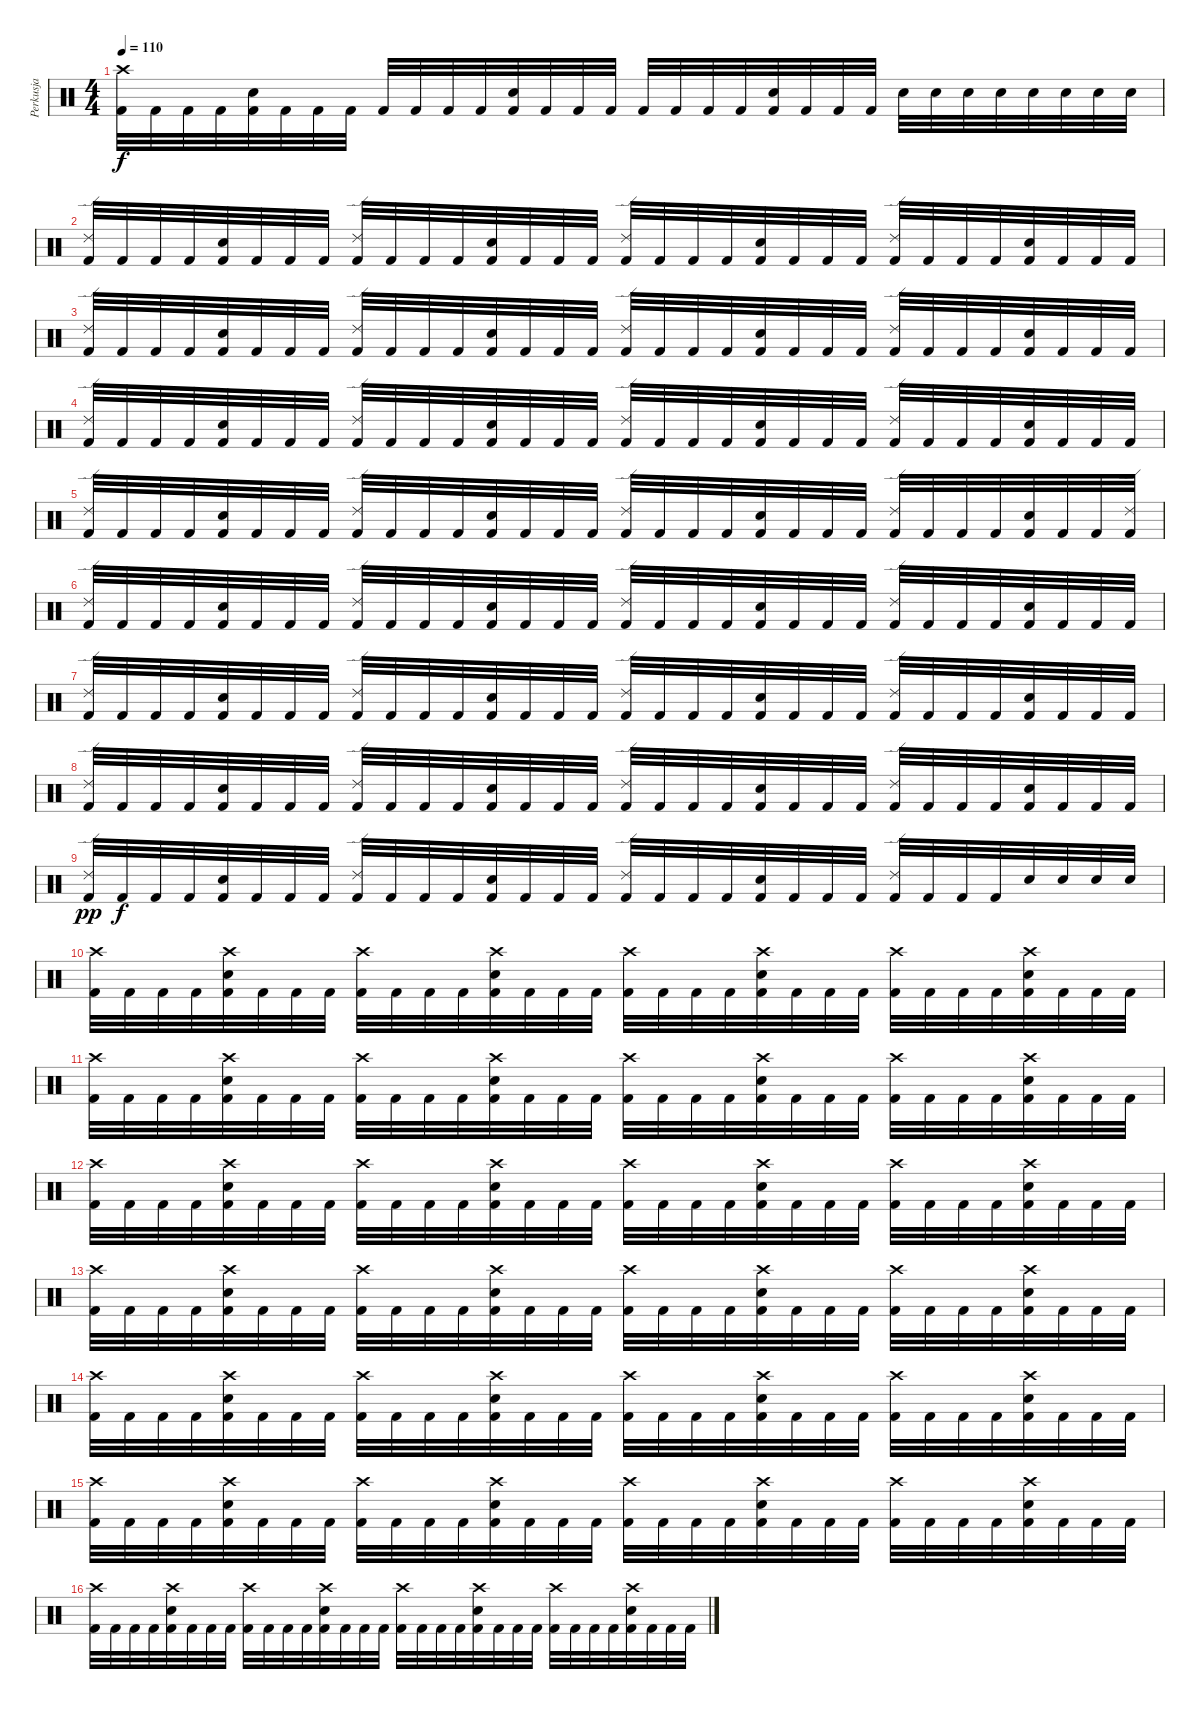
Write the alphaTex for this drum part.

\track ("Perkusja" "Perkusja") {instrument percussion}
\staff {score}
\articulation defaults
\ts (4 4)
\tempo 110
\clef neutral
\ks c
("Crash high (hit)" "Kick (hit) 2").32{dy f} "Kick (hit) 2".32 "Kick (hit) 2".32 "Kick (hit) 2".32 ("Snare (hit) 2" "Kick (hit) 2").32 "Kick (hit) 2".32 "Kick (hit) 2".32 "Kick (hit) 2".32 "Kick (hit) 2".32 "Kick (hit) 2".32 "Kick (hit) 2".32 "Kick (hit) 2".32 ("Snare (hit) 2" "Kick (hit) 2").32 "Kick (hit) 2".32 "Kick (hit) 2".32 "Kick (hit) 2".32 "Kick (hit) 2".32 "Kick (hit) 2".32 "Kick (hit) 2".32 "Kick (hit) 2".32 ("Snare (hit) 2" "Kick (hit) 2").32 "Kick (hit) 2".32 "Kick (hit) 2".32 "Kick (hit) 2".32 "Snare (hit) 2".32 "Snare (hit) 2".32 "Snare (hit) 2".32 "Snare (hit) 2".32 "Snare (hit) 2".32 "Snare (hit) 2".32 "Snare (hit) 2".32 "Snare (hit) 2".32 |
("Ride (edge) 2" "Kick (hit) 2").32 "Kick (hit) 2".32 "Kick (hit) 2".32 "Kick (hit) 2".32 ("Snare (hit) 2" "Kick (hit) 2").32 "Kick (hit) 2".32 "Kick (hit) 2".32 "Kick (hit) 2".32 ("Ride (edge) 2" "Kick (hit) 2").32 "Kick (hit) 2".32 "Kick (hit) 2".32 "Kick (hit) 2".32 ("Snare (hit) 2" "Kick (hit) 2").32 "Kick (hit) 2".32 "Kick (hit) 2".32 "Kick (hit) 2".32 ("Ride (edge) 2" "Kick (hit) 2").32 "Kick (hit) 2".32 "Kick (hit) 2".32 "Kick (hit) 2".32 ("Snare (hit) 2" "Kick (hit) 2").32 "Kick (hit) 2".32 "Kick (hit) 2".32 "Kick (hit) 2".32 ("Ride (edge) 2" "Kick (hit) 2").32 "Kick (hit) 2".32 "Kick (hit) 2".32 "Kick (hit) 2".32 ("Snare (hit) 2" "Kick (hit) 2").32 "Kick (hit) 2".32 "Kick (hit) 2".32 "Kick (hit) 2".32 |
("Ride (edge) 2" "Kick (hit) 2").32 "Kick (hit) 2".32 "Kick (hit) 2".32 "Kick (hit) 2".32 ("Snare (hit) 2" "Kick (hit) 2").32 "Kick (hit) 2".32 "Kick (hit) 2".32 "Kick (hit) 2".32 ("Ride (edge) 2" "Kick (hit) 2").32 "Kick (hit) 2".32 "Kick (hit) 2".32 "Kick (hit) 2".32 ("Snare (hit) 2" "Kick (hit) 2").32 "Kick (hit) 2".32 "Kick (hit) 2".32 "Kick (hit) 2".32 ("Ride (edge) 2" "Kick (hit) 2").32 "Kick (hit) 2".32 "Kick (hit) 2".32 "Kick (hit) 2".32 ("Snare (hit) 2" "Kick (hit) 2").32 "Kick (hit) 2".32 "Kick (hit) 2".32 "Kick (hit) 2".32 ("Ride (edge) 2" "Kick (hit) 2").32 "Kick (hit) 2".32 "Kick (hit) 2".32 "Kick (hit) 2".32 ("Snare (hit) 2" "Kick (hit) 2").32 "Kick (hit) 2".32 "Kick (hit) 2".32 "Kick (hit) 2".32 |
("Ride (edge) 2" "Kick (hit) 2").32 "Kick (hit) 2".32 "Kick (hit) 2".32 "Kick (hit) 2".32 ("Snare (hit) 2" "Kick (hit) 2").32 "Kick (hit) 2".32 "Kick (hit) 2".32 "Kick (hit) 2".32 ("Ride (edge) 2" "Kick (hit) 2").32 "Kick (hit) 2".32 "Kick (hit) 2".32 "Kick (hit) 2".32 ("Snare (hit) 2" "Kick (hit) 2").32 "Kick (hit) 2".32 "Kick (hit) 2".32 "Kick (hit) 2".32 ("Ride (edge) 2" "Kick (hit) 2").32 "Kick (hit) 2".32 "Kick (hit) 2".32 "Kick (hit) 2".32 ("Snare (hit) 2" "Kick (hit) 2").32 "Kick (hit) 2".32 "Kick (hit) 2".32 "Kick (hit) 2".32 ("Ride (edge) 2" "Kick (hit) 2").32 "Kick (hit) 2".32 "Kick (hit) 2".32 "Kick (hit) 2".32 ("Snare (hit) 2" "Kick (hit) 2").32 "Kick (hit) 2".32 "Kick (hit) 2".32 "Kick (hit) 2".32 |
("Ride (edge) 2" "Kick (hit) 2").32 "Kick (hit) 2".32 "Kick (hit) 2".32 "Kick (hit) 2".32 ("Snare (hit) 2" "Kick (hit) 2").32 "Kick (hit) 2".32 "Kick (hit) 2".32 "Kick (hit) 2".32 ("Ride (edge) 2" "Kick (hit) 2").32 "Kick (hit) 2".32 "Kick (hit) 2".32 "Kick (hit) 2".32 ("Snare (hit) 2" "Kick (hit) 2").32 "Kick (hit) 2".32 "Kick (hit) 2".32 "Kick (hit) 2".32 ("Ride (edge) 2" "Kick (hit) 2").32 "Kick (hit) 2".32 "Kick (hit) 2".32 "Kick (hit) 2".32 ("Snare (hit) 2" "Kick (hit) 2").32 "Kick (hit) 2".32 "Kick (hit) 2".32 "Kick (hit) 2".32 ("Ride (edge) 2" "Kick (hit) 2").32 "Kick (hit) 2".32 "Kick (hit) 2".32 "Kick (hit) 2".32 ("Snare (hit) 2" "Kick (hit) 2").32 "Kick (hit) 2".32 "Kick (hit) 2".32 ("Ride (edge) 2" "Kick (hit) 2").32 |
("Ride (edge) 2" "Kick (hit) 2").32 "Kick (hit) 2".32 "Kick (hit) 2".32 "Kick (hit) 2".32 ("Snare (hit) 2" "Kick (hit) 2").32 "Kick (hit) 2".32 "Kick (hit) 2".32 "Kick (hit) 2".32 ("Ride (edge) 2" "Kick (hit) 2").32 "Kick (hit) 2".32 "Kick (hit) 2".32 "Kick (hit) 2".32 ("Snare (hit) 2" "Kick (hit) 2").32 "Kick (hit) 2".32 "Kick (hit) 2".32 "Kick (hit) 2".32 ("Ride (edge) 2" "Kick (hit) 2").32 "Kick (hit) 2".32 "Kick (hit) 2".32 "Kick (hit) 2".32 ("Snare (hit) 2" "Kick (hit) 2").32 "Kick (hit) 2".32 "Kick (hit) 2".32 "Kick (hit) 2".32 ("Ride (edge) 2" "Kick (hit) 2").32 "Kick (hit) 2".32 "Kick (hit) 2".32 "Kick (hit) 2".32 ("Snare (hit) 2" "Kick (hit) 2").32 "Kick (hit) 2".32 "Kick (hit) 2".32 "Kick (hit) 2".32 |
("Ride (edge) 2" "Kick (hit) 2").32 "Kick (hit) 2".32 "Kick (hit) 2".32 "Kick (hit) 2".32 ("Snare (hit) 2" "Kick (hit) 2").32 "Kick (hit) 2".32 "Kick (hit) 2".32 "Kick (hit) 2".32 ("Ride (edge) 2" "Kick (hit) 2").32 "Kick (hit) 2".32 "Kick (hit) 2".32 "Kick (hit) 2".32 ("Snare (hit) 2" "Kick (hit) 2").32 "Kick (hit) 2".32 "Kick (hit) 2".32 "Kick (hit) 2".32 ("Ride (edge) 2" "Kick (hit) 2").32 "Kick (hit) 2".32 "Kick (hit) 2".32 "Kick (hit) 2".32 ("Snare (hit) 2" "Kick (hit) 2").32 "Kick (hit) 2".32 "Kick (hit) 2".32 "Kick (hit) 2".32 ("Ride (edge) 2" "Kick (hit) 2").32 "Kick (hit) 2".32 "Kick (hit) 2".32 "Kick (hit) 2".32 ("Snare (hit) 2" "Kick (hit) 2").32 "Kick (hit) 2".32 "Kick (hit) 2".32 "Kick (hit) 2".32 |
("Ride (edge) 2" "Kick (hit) 2").32 "Kick (hit) 2".32 "Kick (hit) 2".32 "Kick (hit) 2".32 ("Snare (hit) 2" "Kick (hit) 2").32 "Kick (hit) 2".32 "Kick (hit) 2".32 "Kick (hit) 2".32 ("Ride (edge) 2" "Kick (hit) 2").32 "Kick (hit) 2".32 "Kick (hit) 2".32 "Kick (hit) 2".32 ("Snare (hit) 2" "Kick (hit) 2").32 "Kick (hit) 2".32 "Kick (hit) 2".32 "Kick (hit) 2".32 ("Ride (edge) 2" "Kick (hit) 2").32 "Kick (hit) 2".32 "Kick (hit) 2".32 "Kick (hit) 2".32 ("Snare (hit) 2" "Kick (hit) 2").32 "Kick (hit) 2".32 "Kick (hit) 2".32 "Kick (hit) 2".32 ("Ride (edge) 2" "Kick (hit) 2").32 "Kick (hit) 2".32 "Kick (hit) 2".32 "Kick (hit) 2".32 ("Snare (hit) 2" "Kick (hit) 2").32 "Kick (hit) 2".32 "Kick (hit) 2".32 "Kick (hit) 2".32 |
("Ride (edge) 2" "Kick (hit) 2").32{dy pp} "Kick (hit) 2".32{dy f} "Kick (hit) 2".32 "Kick (hit) 2".32 ("Snare (hit) 2" "Kick (hit) 2").32 "Kick (hit) 2".32 "Kick (hit) 2".32 "Kick (hit) 2".32 ("Ride (edge) 2" "Kick (hit) 2").32 "Kick (hit) 2".32 "Kick (hit) 2".32 "Kick (hit) 2".32 ("Snare (hit) 2" "Kick (hit) 2").32 "Kick (hit) 2".32 "Kick (hit) 2".32 "Kick (hit) 2".32 ("Ride (edge) 2" "Kick (hit) 2").32 "Kick (hit) 2".32 "Kick (hit) 2".32 "Kick (hit) 2".32 ("Snare (hit) 2" "Kick (hit) 2").32 "Kick (hit) 2".32 "Kick (hit) 2".32 "Kick (hit) 2".32 ("Ride (edge) 2" "Kick (hit) 2").32 "Kick (hit) 2".32 "Kick (hit) 2".32 "Kick (hit) 2".32 "Snare (hit) 2".32 "Snare (hit) 2".32 "Snare (hit) 2".32 "Snare (hit) 2".32 |
("Crash high (hit)" "Kick (hit) 2").32 "Kick (hit) 2".32 "Kick (hit) 2".32 "Kick (hit) 2".32 ("Crash high (hit)" "Snare (hit) 2" "Kick (hit) 2").32 "Kick (hit) 2".32 "Kick (hit) 2".32 "Kick (hit) 2".32 ("Crash high (hit)" "Kick (hit) 2").32 "Kick (hit) 2".32 "Kick (hit) 2".32 "Kick (hit) 2".32 ("Crash high (hit)" "Snare (hit) 2" "Kick (hit) 2").32 "Kick (hit) 2".32 "Kick (hit) 2".32 "Kick (hit) 2".32 ("Crash high (hit)" "Kick (hit) 2").32 "Kick (hit) 2".32 "Kick (hit) 2".32 "Kick (hit) 2".32 ("Crash high (hit)" "Snare (hit) 2" "Kick (hit) 2").32 "Kick (hit) 2".32 "Kick (hit) 2".32 "Kick (hit) 2".32 ("Crash high (hit)" "Kick (hit) 2").32 "Kick (hit) 2".32 "Kick (hit) 2".32 "Kick (hit) 2".32 ("Crash high (hit)" "Snare (hit) 2" "Kick (hit) 2").32 "Kick (hit) 2".32 "Kick (hit) 2".32 "Kick (hit) 2".32 |
("Crash high (hit)" "Kick (hit) 2").32 "Kick (hit) 2".32 "Kick (hit) 2".32 "Kick (hit) 2".32 ("Crash high (hit)" "Snare (hit) 2" "Kick (hit) 2").32 "Kick (hit) 2".32 "Kick (hit) 2".32 "Kick (hit) 2".32 ("Crash high (hit)" "Kick (hit) 2").32 "Kick (hit) 2".32 "Kick (hit) 2".32 "Kick (hit) 2".32 ("Crash high (hit)" "Snare (hit) 2" "Kick (hit) 2").32 "Kick (hit) 2".32 "Kick (hit) 2".32 "Kick (hit) 2".32 ("Crash high (hit)" "Kick (hit) 2").32 "Kick (hit) 2".32 "Kick (hit) 2".32 "Kick (hit) 2".32 ("Crash high (hit)" "Snare (hit) 2" "Kick (hit) 2").32 "Kick (hit) 2".32 "Kick (hit) 2".32 "Kick (hit) 2".32 ("Crash high (hit)" "Kick (hit) 2").32 "Kick (hit) 2".32 "Kick (hit) 2".32 "Kick (hit) 2".32 ("Crash high (hit)" "Snare (hit) 2" "Kick (hit) 2").32 "Kick (hit) 2".32 "Kick (hit) 2".32 "Kick (hit) 2".32 |
("Crash high (hit)" "Kick (hit) 2").32 "Kick (hit) 2".32 "Kick (hit) 2".32 "Kick (hit) 2".32 ("Crash high (hit)" "Snare (hit) 2" "Kick (hit) 2").32 "Kick (hit) 2".32 "Kick (hit) 2".32 "Kick (hit) 2".32 ("Crash high (hit)" "Kick (hit) 2").32 "Kick (hit) 2".32 "Kick (hit) 2".32 "Kick (hit) 2".32 ("Crash high (hit)" "Snare (hit) 2" "Kick (hit) 2").32 "Kick (hit) 2".32 "Kick (hit) 2".32 "Kick (hit) 2".32 ("Crash high (hit)" "Kick (hit) 2").32 "Kick (hit) 2".32 "Kick (hit) 2".32 "Kick (hit) 2".32 ("Crash high (hit)" "Snare (hit) 2" "Kick (hit) 2").32 "Kick (hit) 2".32 "Kick (hit) 2".32 "Kick (hit) 2".32 ("Crash high (hit)" "Kick (hit) 2").32 "Kick (hit) 2".32 "Kick (hit) 2".32 "Kick (hit) 2".32 ("Crash high (hit)" "Snare (hit) 2" "Kick (hit) 2").32 "Kick (hit) 2".32 "Kick (hit) 2".32 "Kick (hit) 2".32 |
("Crash high (hit)" "Kick (hit) 2").32 "Kick (hit) 2".32 "Kick (hit) 2".32 "Kick (hit) 2".32 ("Crash high (hit)" "Snare (hit) 2" "Kick (hit) 2").32 "Kick (hit) 2".32 "Kick (hit) 2".32 "Kick (hit) 2".32 ("Crash high (hit)" "Kick (hit) 2").32 "Kick (hit) 2".32 "Kick (hit) 2".32 "Kick (hit) 2".32 ("Crash high (hit)" "Snare (hit) 2" "Kick (hit) 2").32 "Kick (hit) 2".32 "Kick (hit) 2".32 "Kick (hit) 2".32 ("Crash high (hit)" "Kick (hit) 2").32 "Kick (hit) 2".32 "Kick (hit) 2".32 "Kick (hit) 2".32 ("Crash high (hit)" "Snare (hit) 2" "Kick (hit) 2").32 "Kick (hit) 2".32 "Kick (hit) 2".32 "Kick (hit) 2".32 ("Crash high (hit)" "Kick (hit) 2").32 "Kick (hit) 2".32 "Kick (hit) 2".32 "Kick (hit) 2".32 ("Crash high (hit)" "Snare (hit) 2" "Kick (hit) 2").32 "Kick (hit) 2".32 "Kick (hit) 2".32 "Kick (hit) 2".32 |
("Crash high (hit)" "Kick (hit) 2").32 "Kick (hit) 2".32 "Kick (hit) 2".32 "Kick (hit) 2".32 ("Crash high (hit)" "Snare (hit) 2" "Kick (hit) 2").32 "Kick (hit) 2".32 "Kick (hit) 2".32 "Kick (hit) 2".32 ("Crash high (hit)" "Kick (hit) 2").32 "Kick (hit) 2".32 "Kick (hit) 2".32 "Kick (hit) 2".32 ("Crash high (hit)" "Snare (hit) 2" "Kick (hit) 2").32 "Kick (hit) 2".32 "Kick (hit) 2".32 "Kick (hit) 2".32 ("Crash high (hit)" "Kick (hit) 2").32 "Kick (hit) 2".32 "Kick (hit) 2".32 "Kick (hit) 2".32 ("Crash high (hit)" "Snare (hit) 2" "Kick (hit) 2").32 "Kick (hit) 2".32 "Kick (hit) 2".32 "Kick (hit) 2".32 ("Crash high (hit)" "Kick (hit) 2").32 "Kick (hit) 2".32 "Kick (hit) 2".32 "Kick (hit) 2".32 ("Crash high (hit)" "Snare (hit) 2" "Kick (hit) 2").32 "Kick (hit) 2".32 "Kick (hit) 2".32 "Kick (hit) 2".32 |
("Crash high (hit)" "Kick (hit) 2").32 "Kick (hit) 2".32 "Kick (hit) 2".32 "Kick (hit) 2".32 ("Crash high (hit)" "Snare (hit) 2" "Kick (hit) 2").32 "Kick (hit) 2".32 "Kick (hit) 2".32 "Kick (hit) 2".32 ("Crash high (hit)" "Kick (hit) 2").32 "Kick (hit) 2".32 "Kick (hit) 2".32 "Kick (hit) 2".32 ("Crash high (hit)" "Snare (hit) 2" "Kick (hit) 2").32 "Kick (hit) 2".32 "Kick (hit) 2".32 "Kick (hit) 2".32 ("Crash high (hit)" "Kick (hit) 2").32 "Kick (hit) 2".32 "Kick (hit) 2".32 "Kick (hit) 2".32 ("Crash high (hit)" "Snare (hit) 2" "Kick (hit) 2").32 "Kick (hit) 2".32 "Kick (hit) 2".32 "Kick (hit) 2".32 ("Crash high (hit)" "Kick (hit) 2").32 "Kick (hit) 2".32 "Kick (hit) 2".32 "Kick (hit) 2".32 ("Crash high (hit)" "Snare (hit) 2" "Kick (hit) 2").32 "Kick (hit) 2".32 "Kick (hit) 2".32 "Kick (hit) 2".32 |
("Crash high (hit)" "Kick (hit) 2").32 "Kick (hit) 2".32 "Kick (hit) 2".32 "Kick (hit) 2".32 ("Crash high (hit)" "Snare (hit) 2" "Kick (hit) 2").32 "Kick (hit) 2".32 "Kick (hit) 2".32 "Kick (hit) 2".32 ("Crash high (hit)" "Kick (hit) 2").32 "Kick (hit) 2".32 "Kick (hit) 2".32 "Kick (hit) 2".32 ("Crash high (hit)" "Snare (hit) 2" "Kick (hit) 2").32 "Kick (hit) 2".32 "Kick (hit) 2".32 "Kick (hit) 2".32 ("Crash high (hit)" "Kick (hit) 2").32 "Kick (hit) 2".32 "Kick (hit) 2".32 "Kick (hit) 2".32 ("Crash high (hit)" "Snare (hit) 2" "Kick (hit) 2").32 "Kick (hit) 2".32 "Kick (hit) 2".32 "Kick (hit) 2".32 ("Crash high (hit)" "Kick (hit) 2").32 "Kick (hit) 2".32 "Kick (hit) 2".32 "Kick (hit) 2".32 ("Crash high (hit)" "Snare (hit) 2" "Kick (hit) 2").32 "Kick (hit) 2".32 "Kick (hit) 2".32 "Kick (hit) 2".32
